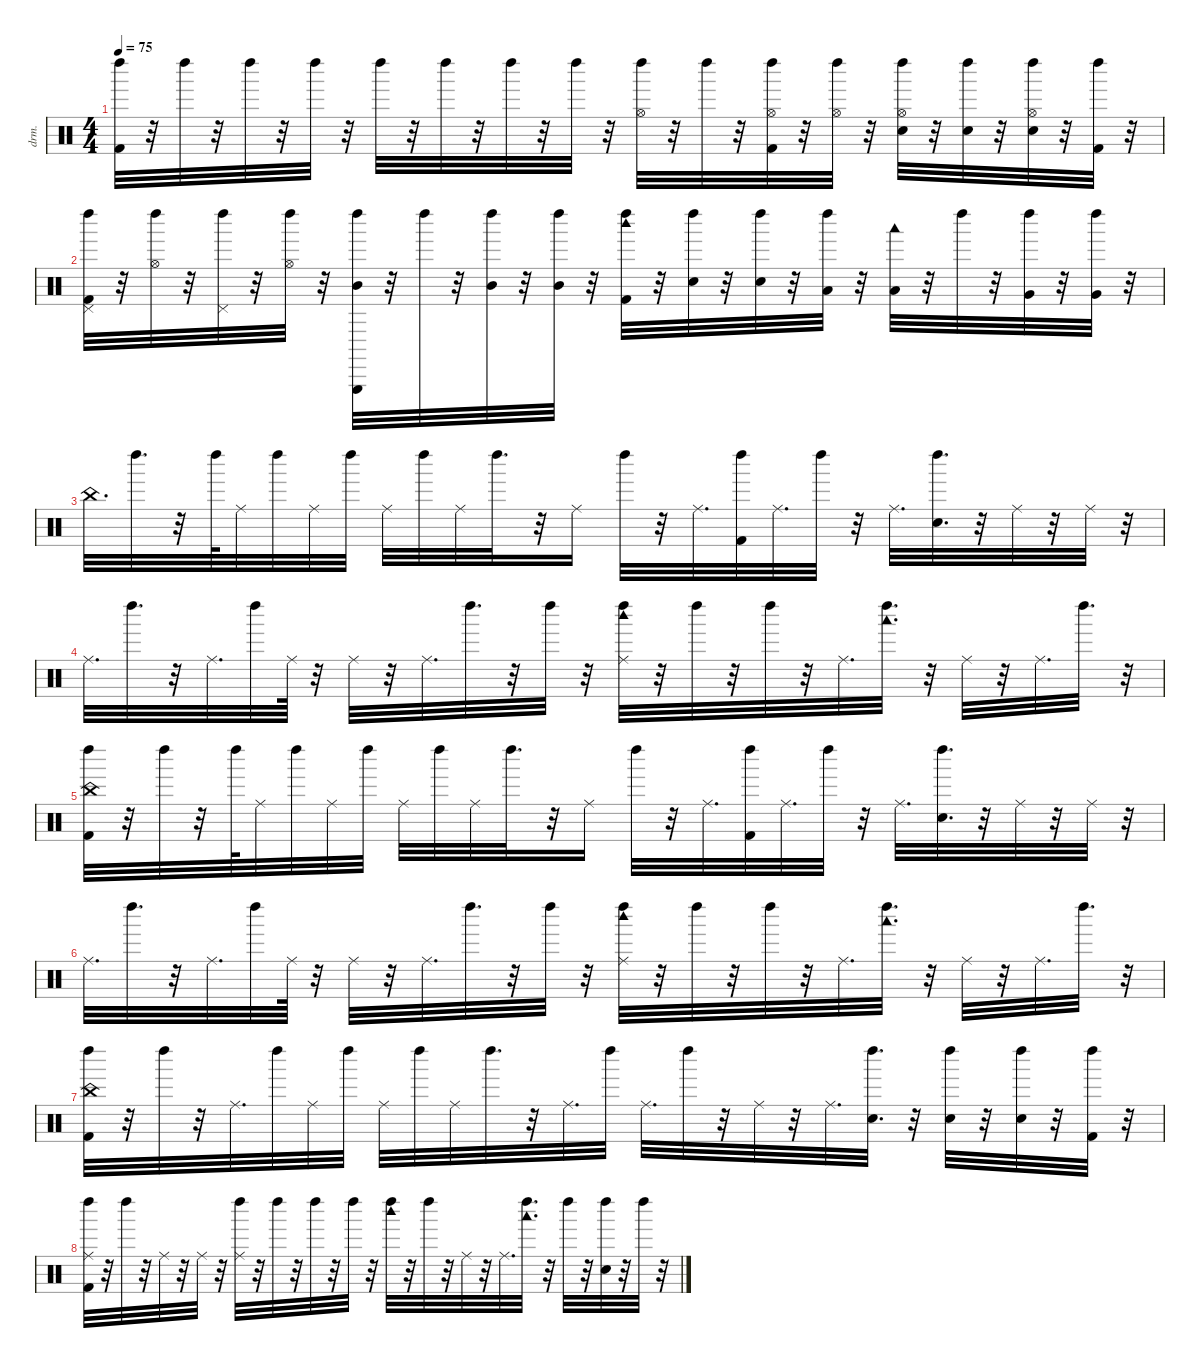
\defaultSystemsLayout 4
\hideDynamics
\bracketExtendMode nobrackets
\otherSystemsTrackNameOrientation horizontal
\track ("Drums" "drm.") {instrument percussion}
\staff {score}
\articulation defaults
\ts (4 4)
\tempo 75
\clef neutral
\ks c
("Kick (hit) 2" "Left Maraca (hit)").32{dy f} r.32 "Left Maraca (hit)".32 r.32 "Left Maraca (hit)".32 r.32 "Left Maraca (hit)".32 r.32 "Left Maraca (hit)".32 r.32 "Left Maraca (hit)".32 r.32 "Left Maraca (hit)".32 r.32 "Left Maraca (hit)".32 r.32 ("Hi-Hat (open)" "Left Maraca (hit)").32 r.32 "Left Maraca (hit)".32 r.32 ("Hi-Hat (open)" "Kick (hit) 2" "Left Maraca (hit)").32 r.32 ("Hi-Hat (open)" "Left Maraca (hit)").32 r.32 ("Hi-Hat (open)" "Snare (hit) 2" "Left Maraca (hit)").32 r.32 ("Snare (hit) 2" "Left Maraca (hit)").32 r.32 ("Hi-Hat (open)" "Snare (hit) 2" "Left Maraca (hit)").32 r.32 ("Kick (hit) 2" "Left Maraca (hit)").32 r.32 |
("Pedal Hi-Hat (hit)" "Kick (hit) 2" "Left Maraca (hit)").32 r.32 ("Hi-Hat (open)" "Left Maraca (hit)").32 r.32 ("Pedal Hi-Hat (hit)" "Left Maraca (hit)").32 r.32 ("Hi-Hat (open)" "Left Maraca (hit)").32 r.32 ("Triangle (hit)" "Mid Tom (hit)" "Left Maraca (hit)").32 r.32 "Left Maraca (hit)".32 r.32 ("Mid Tom (hit)" "Left Maraca (hit)").32 r.32 ("Mid Tom (hit)" "Left Maraca (hit)").32 r.32 ("Kick (hit) 2" "Woodblock high (hit)" "Left Maraca (hit)").32 r.32 ("Snare (hit) 2" "Left Maraca (hit)").32 r.32 ("Snare (hit) 2" "Left Maraca (hit)").32 r.32 ("Low Tom (hit)" "Left Maraca (hit)").32 r.32 ("Low Tom (hit)" "Woodblock low (hit)").32 r.32 "Left Maraca (hit)".32 r.32 ("Very Low Tom (hit)" "Left Maraca (hit)").32 r.32 ("Very Low Tom (hit)" "Left Maraca (hit)").32 r.32 |
"China (hit)".32{d} "Left Maraca (hit)".32{d} r.32 "Left Maraca (hit)".64 "Ride (middle)".32 "Left Maraca (hit)".32 "Ride (middle)".32 "Left Maraca (hit)".32 "Ride (middle)".32 "Left Maraca (hit)".32 "Ride (middle)".32 "Left Maraca (hit)".32{d} r.32 "Ride (middle)".16 "Left Maraca (hit)".32 r.32 "Ride (middle)".32{d} ("Kick (hit) 2" "Left Maraca (hit)").32 "Ride (middle)".32{d} "Left Maraca (hit)".32 r.32 "Ride (middle)".32{d} ("Snare (hit) 2" "Left Maraca (hit)").32{d} r.32 "Ride (middle)".32 r.32 "Ride (middle)".32 r.32 |
"Ride (middle)".32{d} "Left Maraca (hit)".32{d} r.32 "Ride (middle)".32{d} "Left Maraca (hit)".32 "Ride (middle)".64 r.32 "Ride (middle)".32 r.32 "Ride (middle)".32{d} "Left Maraca (hit)".32{d} r.32 "Left Maraca (hit)".32 r.32 ("Ride (middle)" "Woodblock high (hit)" "Left Maraca (hit)").32 r.32 "Left Maraca (hit)".32 r.32 "Left Maraca (hit)".32 r.32 "Ride (middle)".32{d} ("Woodblock low (hit)" "Left Maraca (hit)").32{d} r.32 "Ride (middle)".32 r.32 "Ride (middle)".32{d} "Left Maraca (hit)".32{d} r.32 |
("China (hit)" "Kick (hit) 2" "Left Maraca (hit)").32 r.32 "Left Maraca (hit)".32 r.32 "Left Maraca (hit)".64 "Ride (middle)".32 "Left Maraca (hit)".32 "Ride (middle)".32 "Left Maraca (hit)".32 "Ride (middle)".32 "Left Maraca (hit)".32 "Ride (middle)".32 "Left Maraca (hit)".32{d} r.32 "Ride (middle)".16 "Left Maraca (hit)".32 r.32 "Ride (middle)".32{d} ("Kick (hit) 2" "Left Maraca (hit)").32 "Ride (middle)".32{d} "Left Maraca (hit)".32 r.32 "Ride (middle)".32{d} ("Snare (hit) 2" "Left Maraca (hit)").32{d} r.32 "Ride (middle)".32 r.32 "Ride (middle)".32 r.32 |
"Ride (middle)".32{d} "Left Maraca (hit)".32{d} r.32 "Ride (middle)".32{d} "Left Maraca (hit)".32 "Ride (middle)".64 r.32 "Ride (middle)".32 r.32 "Ride (middle)".32{d} "Left Maraca (hit)".32{d} r.32 "Left Maraca (hit)".32 r.32 ("Ride (middle)" "Woodblock high (hit)" "Left Maraca (hit)").32 r.32 "Left Maraca (hit)".32 r.32 "Left Maraca (hit)".32 r.32 "Ride (middle)".32{d} ("Woodblock low (hit)" "Left Maraca (hit)").32{d} r.32 "Ride (middle)".32 r.32 "Ride (middle)".32{d} "Left Maraca (hit)".32{d} r.32 |
("China (hit)" "Kick (hit) 2" "Left Maraca (hit)").32 r.32 "Left Maraca (hit)".32 r.32 "Ride (middle)".32{d} "Left Maraca (hit)".32 "Ride (middle)".32 "Left Maraca (hit)".32 "Ride (middle)".32 "Left Maraca (hit)".32 "Ride (middle)".32 "Left Maraca (hit)".32{d} r.32 "Ride (middle)".32{d} "Left Maraca (hit)".32 "Ride (middle)".32{d} "Left Maraca (hit)".32 r.32 "Ride (middle)".32 r.32 "Ride (middle)".32{d} ("Snare (hit) 2" "Left Maraca (hit)").32{d} r.32 ("Snare (hit) 2" "Left Maraca (hit)").32 r.32 ("Snare (hit) 2" "Left Maraca (hit)").32 r.32 ("Kick (hit) 2" "Left Maraca (hit)").32 r.32 |
("Ride (middle)" "Kick (hit) 2" "Left Maraca (hit)").32 r.32 "Left Maraca (hit)".32 r.32 "Ride (middle)".32 r.32 "Ride (middle)".32 r.32 ("Ride (middle)" "Left Maraca (hit)").32 r.32 "Left Maraca (hit)".32 r.32 "Left Maraca (hit)".32 r.32 "Left Maraca (hit)".32 r.32 ("Woodblock high (hit)" "Left Maraca (hit)").32 r.32 "Left Maraca (hit)".32 r.32 "Ride (middle)".32 r.32 "Ride (middle)".32{d} ("Woodblock low (hit)" "Left Maraca (hit)").32{d} r.32 "Left Maraca (hit)".32 r.32 ("Hand Clap (hit)" "Left Maraca (hit)").32 r.32 "Left Maraca (hit)".32 r.32
